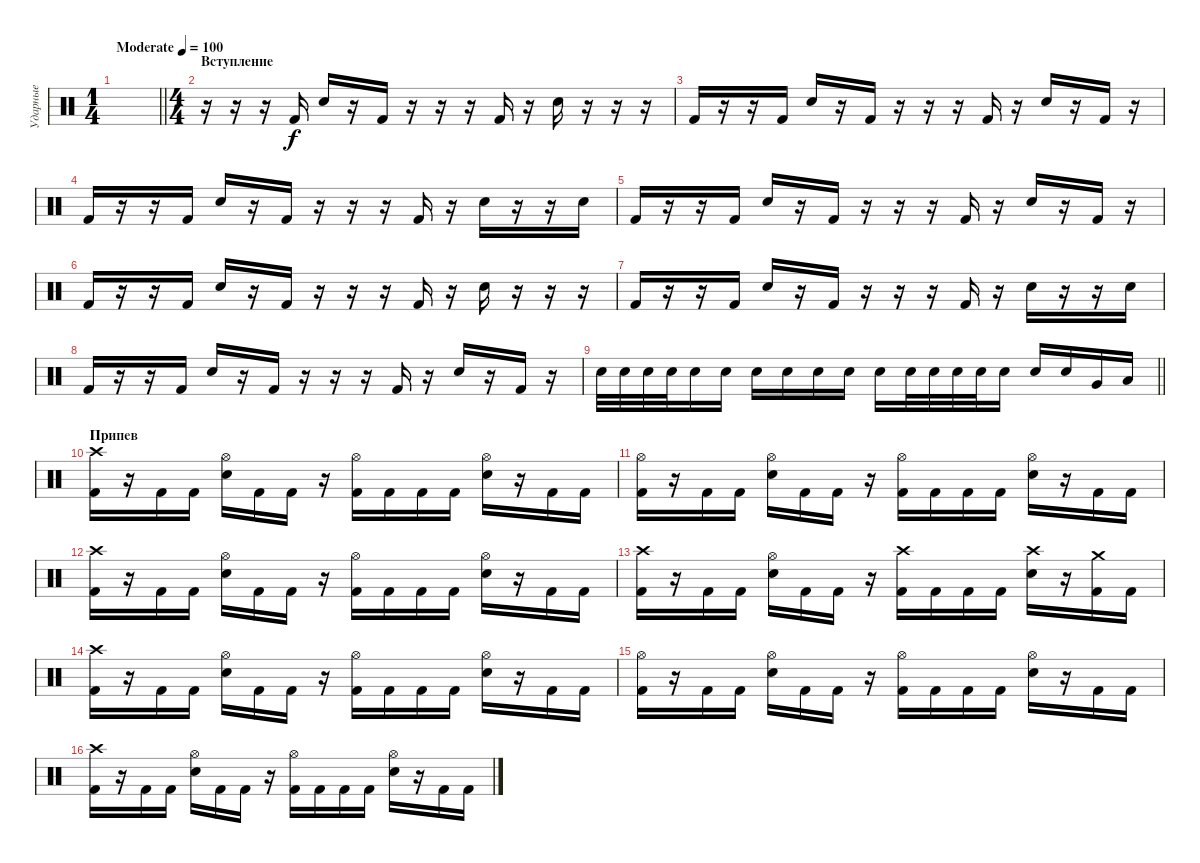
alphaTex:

\track ("Ударные" "Ударные") {instrument percussion}
\staff {score}
\articulation defaults
\ts (1 4)
\tempo (100 "Moderate")
\clef neutral
\barLineRight lightlight
\ks c
|
\ts (4 4)
\section ("" "Вступление")
r.16 r.16 r.16 "Kick (hit) 2".16 "Snare (hit) 2".16 r.16 "Kick (hit) 2".16 r.16 r.16 r.16 "Kick (hit) 2".16 r.16 "Snare (hit) 2".16 r.16 r.16 r.16 |
"Kick (hit) 2".16 r.16 r.16 "Kick (hit) 2".16 "Snare (hit) 2".16 r.16 "Kick (hit) 2".16 r.16 r.16 r.16 "Kick (hit) 2".16 r.16 "Snare (hit) 2".16 r.16 "Kick (hit) 2".16 r.16 |
"Kick (hit) 2".16 r.16 r.16 "Kick (hit) 2".16 "Snare (hit) 2".16 r.16 "Kick (hit) 2".16 r.16 r.16 r.16 "Kick (hit) 2".16 r.16 "Snare (hit) 2".16 r.16 r.16 "Snare (hit) 2".16 |
"Kick (hit) 2".16 r.16 r.16 "Kick (hit) 2".16 "Snare (hit) 2".16 r.16 "Kick (hit) 2".16 r.16 r.16 r.16 "Kick (hit) 2".16 r.16 "Snare (hit) 2".16 r.16 "Kick (hit) 2".16 r.16 |
"Kick (hit) 2".16 r.16 r.16 "Kick (hit) 2".16 "Snare (hit) 2".16 r.16 "Kick (hit) 2".16 r.16 r.16 r.16 "Kick (hit) 2".16 r.16 "Snare (hit) 2".16 r.16 r.16 r.16 |
"Kick (hit) 2".16 r.16 r.16 "Kick (hit) 2".16 "Snare (hit) 2".16 r.16 "Kick (hit) 2".16 r.16 r.16 r.16 "Kick (hit) 2".16 r.16 "Snare (hit) 2".16 r.16 r.16 "Snare (hit) 2".16 |
"Kick (hit) 2".16 r.16 r.16 "Kick (hit) 2".16 "Snare (hit) 2".16 r.16 "Kick (hit) 2".16 r.16 r.16 r.16 "Kick (hit) 2".16 r.16 "Snare (hit) 2".16 r.16 "Kick (hit) 2".16 r.16 |
\barLineRight lightlight "Snare (hit) 2".32 "Snare (hit) 2".32 "Snare (hit) 2".32 "Snare (hit) 2".32 "Snare (hit) 2".16 "Snare (hit) 2".16 "Snare (hit) 2".16 "Snare (hit) 2".16 "Snare (hit) 2".16 "Snare (hit) 2".16 "Snare (hit) 2".16 "Snare (hit) 2".32 "Snare (hit) 2".32 "Snare (hit) 2".32 "Snare (hit) 2".32 "Snare (hit) 2".16 "Snare (hit) 2".16 "Snare (hit) 2".16 "Very Low Tom (hit)".16 "Low Tom (hit)".16
|
\section ("" "Припев")
("Crash high (hit)" "Kick (hit) 2").16 r.16 "Kick (hit) 2".16 "Kick (hit) 2".16 ("Hi-Hat (open)" "Snare (hit) 2").16 "Kick (hit) 2".16 "Kick (hit) 2".16 r.16 ("Hi-Hat (open)" "Kick (hit) 2").16 "Kick (hit) 2".16 "Kick (hit) 2".16 "Kick (hit) 2".16 ("Hi-Hat (open)" "Snare (hit) 2").16 r.16 "Kick (hit) 2".16 "Kick (hit) 2".16 |
("Hi-Hat (open)" "Kick (hit) 2").16 r.16 "Kick (hit) 2".16 "Kick (hit) 2".16 ("Hi-Hat (open)" "Snare (hit) 2").16 "Kick (hit) 2".16 "Kick (hit) 2".16 r.16 ("Hi-Hat (open)" "Kick (hit) 2").16 "Kick (hit) 2".16 "Kick (hit) 2".16 "Kick (hit) 2".16 ("Hi-Hat (open)" "Snare (hit) 2").16 r.16 "Kick (hit) 2".16 "Kick (hit) 2".16 |
("Crash high (hit)" "Kick (hit) 2").16 r.16 "Kick (hit) 2".16 "Kick (hit) 2".16 ("Hi-Hat (open)" "Snare (hit) 2").16 "Kick (hit) 2".16 "Kick (hit) 2".16 r.16 ("Hi-Hat (open)" "Kick (hit) 2").16 "Kick (hit) 2".16 "Kick (hit) 2".16 "Kick (hit) 2".16 ("Hi-Hat (open)" "Snare (hit) 2").16 r.16 "Kick (hit) 2".16 "Kick (hit) 2".16 |
("Crash high (hit)" "Kick (hit) 2").16 r.16 "Kick (hit) 2".16 "Kick (hit) 2".16 ("Hi-Hat (open)" "Snare (hit) 2").16 "Kick (hit) 2".16 "Kick (hit) 2".16 r.16 ("Crash high (hit)" "Kick (hit) 2").16 "Kick (hit) 2".16 "Kick (hit) 2".16 "Kick (hit) 2".16 ("Crash high (hit)" "Snare (hit) 2").16 r.16 ("Crash medium (hit)" "Kick (hit) 2").16 "Kick (hit) 2".16 |
("Crash high (hit)" "Kick (hit) 2").16 r.16 "Kick (hit) 2".16 "Kick (hit) 2".16 ("Hi-Hat (open)" "Snare (hit) 2").16 "Kick (hit) 2".16 "Kick (hit) 2".16 r.16 ("Hi-Hat (open)" "Kick (hit) 2").16 "Kick (hit) 2".16 "Kick (hit) 2".16 "Kick (hit) 2".16 ("Hi-Hat (open)" "Snare (hit) 2").16 r.16 "Kick (hit) 2".16 "Kick (hit) 2".16 |
("Hi-Hat (open)" "Kick (hit) 2").16 r.16 "Kick (hit) 2".16 "Kick (hit) 2".16 ("Hi-Hat (open)" "Snare (hit) 2").16 "Kick (hit) 2".16 "Kick (hit) 2".16 r.16 ("Hi-Hat (open)" "Kick (hit) 2").16 "Kick (hit) 2".16 "Kick (hit) 2".16 "Kick (hit) 2".16 ("Hi-Hat (open)" "Snare (hit) 2").16 r.16 "Kick (hit) 2".16 "Kick (hit) 2".16 |
("Crash high (hit)" "Kick (hit) 2").16 r.16 "Kick (hit) 2".16 "Kick (hit) 2".16 ("Hi-Hat (open)" "Snare (hit) 2").16 "Kick (hit) 2".16 "Kick (hit) 2".16 r.16 ("Hi-Hat (open)" "Kick (hit) 2").16 "Kick (hit) 2".16 "Kick (hit) 2".16 "Kick (hit) 2".16 ("Hi-Hat (open)" "Snare (hit) 2").16 r.16 "Kick (hit) 2".16 "Kick (hit) 2".16
